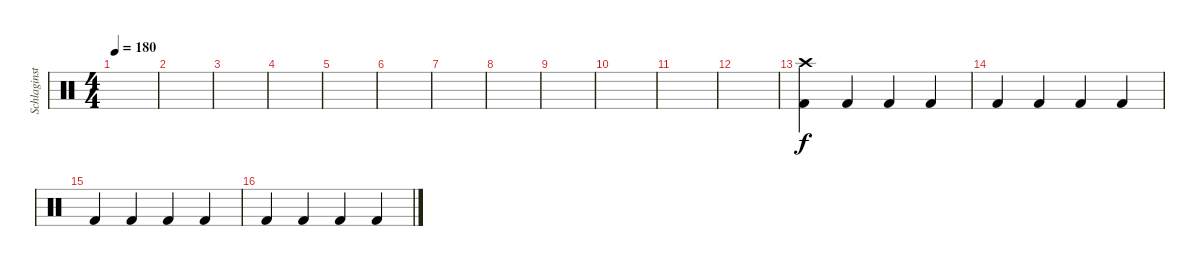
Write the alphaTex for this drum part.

\track ("Schlaginstrumente - Auswahl" "Schlaginst") {instrument percussion}
\staff {score}
\articulation defaults
\ts (4 4)
\tempo 180
\clef neutral
\ks c
|
|
|
|
|
|
|
|
|
|
|
|
("Crash high (hit)" "Kick (hit) 2").4 "Kick (hit) 2".4 "Kick (hit) 2".4 "Kick (hit) 2".4 |
"Kick (hit) 2".4 "Kick (hit) 2".4 "Kick (hit) 2".4 "Kick (hit) 2".4 |
"Kick (hit) 2".4 "Kick (hit) 2".4 "Kick (hit) 2".4 "Kick (hit) 2".4 |
"Kick (hit) 2".4 "Kick (hit) 2".4 "Kick (hit) 2".4 "Kick (hit) 2".4
